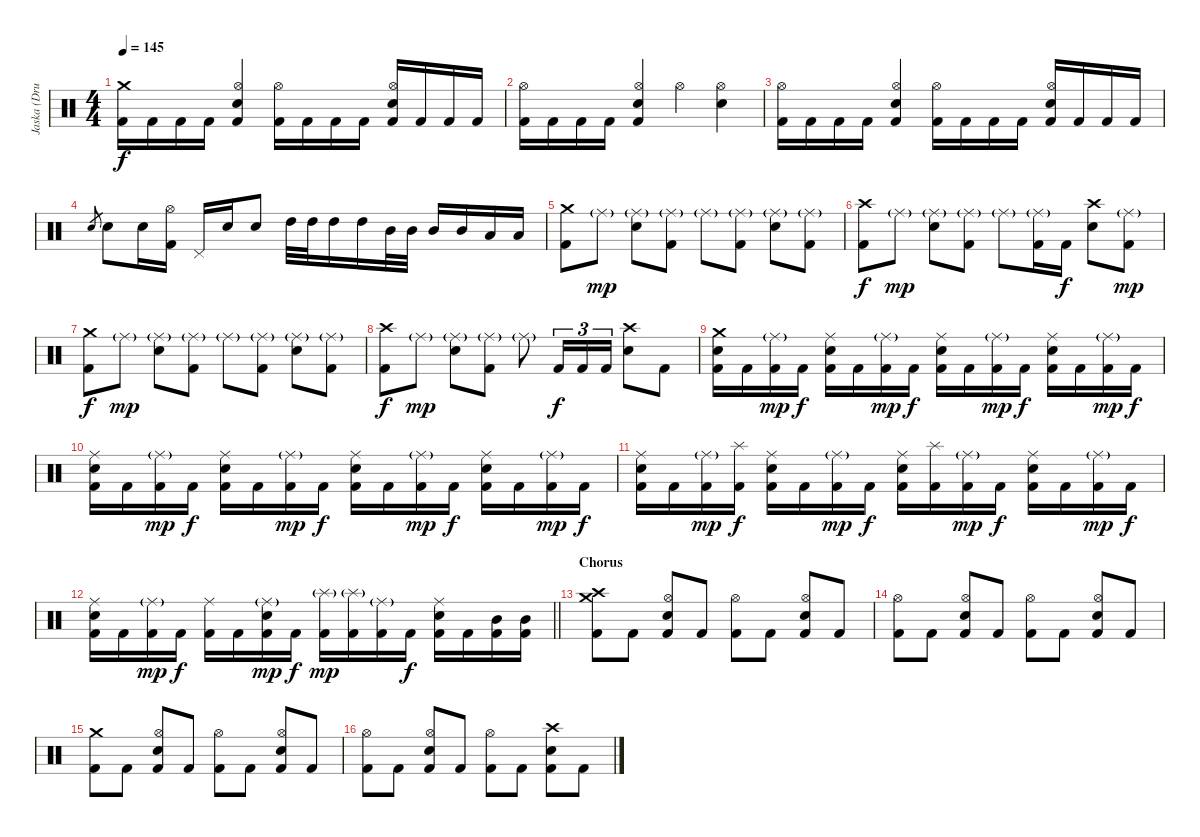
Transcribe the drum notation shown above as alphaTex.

\track ("Jaska (Drums)" "Jaska (Dru") {instrument percussion}
\staff {score}
\articulation defaults
\ts (4 4)
\tempo 145
\clef neutral
\ks c
("Crash medium (hit)" "Kick (hit) 2").16{dy f} "Kick (hit) 2".16 "Kick (hit) 2".16 "Kick (hit) 2".16 ("Hi-Hat (open)" "Electric Snare (hit)" "Kick (hit) 2").4 ("Hi-Hat (open)" "Kick (hit) 2").16 "Kick (hit) 2".16 "Kick (hit) 2".16 "Kick (hit) 2".16 ("Hi-Hat (open)" "Electric Snare (hit)" "Kick (hit) 2").16 "Kick (hit) 2".16 "Kick (hit) 2".16 "Kick (hit) 2".16 |
("Hi-Hat (open)" "Kick (hit) 2").16 "Kick (hit) 2".16 "Kick (hit) 2".16 "Kick (hit) 2".16 ("Hi-Hat (open)" "Electric Snare (hit)" "Kick (hit) 2").4 "Hi-Hat (open)".4 ("Hi-Hat (open)" "Electric Snare (hit)").4 |
("Hi-Hat (open)" "Kick (hit) 2").16 "Kick (hit) 2".16 "Kick (hit) 2".16 "Kick (hit) 2".16 ("Hi-Hat (open)" "Electric Snare (hit)" "Kick (hit) 2").4 ("Hi-Hat (open)" "Kick (hit) 2").16 "Kick (hit) 2".16 "Kick (hit) 2".16 "Kick (hit) 2".16 ("Hi-Hat (open)" "Electric Snare (hit)" "Kick (hit) 2").16 "Kick (hit) 2".16 "Kick (hit) 2".16 "Kick (hit) 2".16 |
"Electric Snare (hit)".8{gr} "Electric Snare (hit)".8 "Electric Snare (hit)".16 ("Hi-Hat (open)" "Kick (hit) 2").16 "Pedal Hi-Hat (hit)".16 "Electric Snare (hit)".16 "Electric Snare (hit)".8 "High Tom (hit)".32 "High Tom (hit)".32 "High Tom (hit)".16 "High Tom (hit)".16 "Mid Tom (hit)".32 "Mid Tom (hit)".32 "Mid Tom (hit)".16 "Mid Tom (hit)".16 "Low Tom (hit)".16 "Low Tom (hit)".16 |
("Crash medium (hit)" "Kick (hit) 2").8 "Ride (middle)"{g}.8{dy mp} ("Ride (middle)"{g} "Electric Snare (hit)").8 ("Ride (middle)"{g} "Kick (hit) 2").8 "Ride (middle)"{g}.8 ("Ride (middle)"{g} "Kick (hit) 2").8 ("Ride (middle)"{g} "Electric Snare (hit)").8 ("Ride (middle)"{g} "Kick (hit) 2").8 |
("Crash high (hit)" "Kick (hit) 2").8{dy f} "Ride (middle)"{g}.8{dy mp} ("Ride (middle)"{g} "Electric Snare (hit)").8 ("Ride (middle)"{g} "Kick (hit) 2").8 "Ride (middle)"{g}.8 ("Ride (middle)"{g} "Kick (hit) 2").16 "Kick (hit) 2".16{dy f} ("Crash high (hit)" "Electric Snare (hit)").8 ("Ride (middle)"{g} "Kick (hit) 2").8{dy mp} |
("Crash medium (hit)" "Kick (hit) 2").8{dy f} "Ride (middle)"{g}.8{dy mp} ("Ride (middle)"{g} "Electric Snare (hit)").8 ("Ride (middle)"{g} "Kick (hit) 2").8 "Ride (middle)"{g}.8 ("Ride (middle)"{g} "Kick (hit) 2").8 ("Ride (middle)"{g} "Electric Snare (hit)").8 ("Ride (middle)"{g} "Kick (hit) 2").8 |
("Crash high (hit)" "Kick (hit) 2").8{dy f} "Ride (middle)"{g}.8{dy mp} ("Ride (middle)"{g} "Electric Snare (hit)").8 ("Ride (middle)"{g} "Kick (hit) 2").8 "Ride (middle)"{g}.8 "Kick (hit) 2".16{tu (3 2) dy f} "Kick (hit) 2".16{tu (3 2)} "Kick (hit) 2".16{tu (3 2)} ("Crash high (hit)" "Electric Snare (hit)").8 "Kick (hit) 2".8 |
("Crash medium (hit)" "Electric Snare (hit)" "Kick (hit) 2").16 "Kick (hit) 2".16 ("Ride (middle)"{g} "Kick (hit) 2").16{dy mp} "Kick (hit) 2".16{dy f} ("Ride (middle)" "Electric Snare (hit)" "Kick (hit) 2").16 "Kick (hit) 2".16 ("Ride (middle)"{g} "Kick (hit) 2").16{dy mp} "Kick (hit) 2".16{dy f} ("Ride (middle)" "Electric Snare (hit)" "Kick (hit) 2").16 "Kick (hit) 2".16 ("Ride (middle)"{g} "Kick (hit) 2").16{dy mp} "Kick (hit) 2".16{dy f} ("Ride (middle)" "Electric Snare (hit)" "Kick (hit) 2").16 "Kick (hit) 2".16 ("Ride (middle)"{g} "Kick (hit) 2").16{dy mp} "Kick (hit) 2".16{dy f} |
("Ride (middle)" "Electric Snare (hit)" "Kick (hit) 2").16 "Kick (hit) 2".16 ("Ride (middle)"{g} "Kick (hit) 2").16{dy mp} "Kick (hit) 2".16{dy f} ("Ride (middle)" "Electric Snare (hit)" "Kick (hit) 2").16 "Kick (hit) 2".16 ("Ride (middle)"{g} "Kick (hit) 2").16{dy mp} "Kick (hit) 2".16{dy f} ("Ride (middle)" "Electric Snare (hit)" "Kick (hit) 2").16 "Kick (hit) 2".16 ("Ride (middle)"{g} "Kick (hit) 2").16{dy mp} "Kick (hit) 2".16{dy f} ("Ride (middle)" "Electric Snare (hit)" "Kick (hit) 2").16 "Kick (hit) 2".16 ("Ride (middle)"{g} "Kick (hit) 2").16{dy mp} "Kick (hit) 2".16{dy f} |
("Ride (middle)" "Electric Snare (hit)" "Kick (hit) 2").16 "Kick (hit) 2".16 ("Ride (middle)"{g} "Kick (hit) 2").16{dy mp} ("Splash (hit)" "Kick (hit) 2").16{dy f} ("Ride (middle)" "Electric Snare (hit)" "Kick (hit) 2").16 "Kick (hit) 2".16 ("Ride (middle)"{g} "Kick (hit) 2").16{dy mp} "Kick (hit) 2".16{dy f} ("Ride (middle)" "Electric Snare (hit)" "Kick (hit) 2").16 ("Splash (hit)" "Kick (hit) 2").16 ("Ride (middle)"{g} "Kick (hit) 2").16{dy mp} "Kick (hit) 2".16{dy f} ("Ride (middle)" "Electric Snare (hit)" "Kick (hit) 2").16 "Kick (hit) 2".16 ("Ride (middle)"{g} "Kick (hit) 2").16{dy mp} "Kick (hit) 2".16{dy f} |
\barLineRight lightlight
("Ride (middle)" "Electric Snare (hit)" "Kick (hit) 2").16 "Kick (hit) 2".16 ("Ride (middle)"{g} "Kick (hit) 2").16{dy mp} "Kick (hit) 2".16{dy f} ("Ride (middle)" "Kick (hit) 2").16 "Kick (hit) 2".16 ("Ride (middle)"{g} "Electric Snare (hit)" "Kick (hit) 2").16{dy mp} "Kick (hit) 2".16{dy f} ("Splash (hit)"{g} "Kick (hit) 2").16{dy mp} ("Splash (hit)"{g} "Kick (hit) 2").16 ("Ride (middle)"{g} "Kick (hit) 2").16 "Kick (hit) 2".16{dy f} ("Ride (middle)" "Electric Snare (hit)" "Kick (hit) 2").16 "Kick (hit) 2".16 ("Mid Tom (hit)" "Kick (hit) 2").16 ("Mid Tom (hit)" "Kick (hit) 2").16 |
\section ("" "Chorus")
("Crash medium (hit)" "Crash high (hit)" "Kick (hit) 2").8{volume 16 balance 8} "Kick (hit) 2".8 ("Hi-Hat (open)" "Electric Snare (hit)" "Kick (hit) 2").8 "Kick (hit) 2".8 ("Hi-Hat (open)" "Kick (hit) 2").8 "Kick (hit) 2".8 ("Hi-Hat (open)" "Electric Snare (hit)" "Kick (hit) 2").8 "Kick (hit) 2".8 |
("Hi-Hat (open)" "Kick (hit) 2").8 "Kick (hit) 2".8 ("Hi-Hat (open)" "Electric Snare (hit)" "Kick (hit) 2").8 "Kick (hit) 2".8 ("Hi-Hat (open)" "Kick (hit) 2").8 "Kick (hit) 2".8 ("Hi-Hat (open)" "Electric Snare (hit)" "Kick (hit) 2").8 "Kick (hit) 2".8 |
("Crash medium (hit)" "Kick (hit) 2").8 "Kick (hit) 2".8 ("Hi-Hat (open)" "Electric Snare (hit)" "Kick (hit) 2").8 "Kick (hit) 2".8 ("Hi-Hat (open)" "Kick (hit) 2").8 "Kick (hit) 2".8 ("Hi-Hat (open)" "Electric Snare (hit)" "Kick (hit) 2").8 "Kick (hit) 2".8 |
("Hi-Hat (open)" "Kick (hit) 2").8 "Kick (hit) 2".8 ("Hi-Hat (open)" "Electric Snare (hit)" "Kick (hit) 2").8 "Kick (hit) 2".8 ("Hi-Hat (open)" "Kick (hit) 2").8 "Kick (hit) 2".8 ("Crash high (hit)" "Electric Snare (hit)" "Kick (hit) 2").8 "Kick (hit) 2".8
